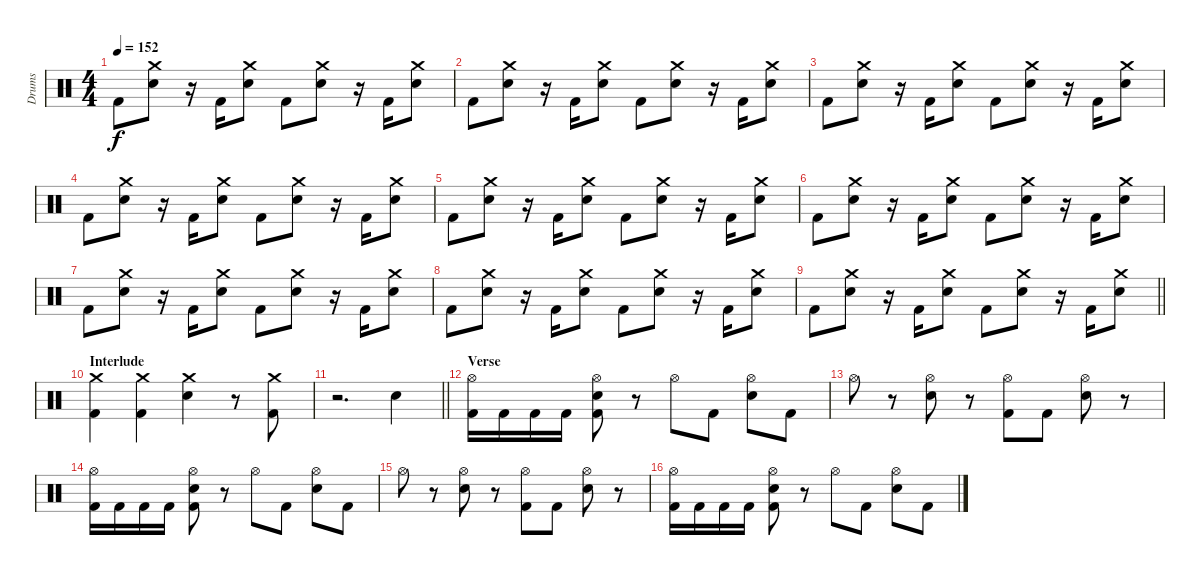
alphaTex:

\track ("Drums" "Drums") {instrument percussion}
\staff
\articulation defaults
\ts (4 4)
\tempo 152
\clef neutral
\ks c "Kick (hit) 2".8{dy f}
("Crash medium (hit)" "Electric Snare (hit)").8 r.16 "Kick (hit) 2".16 ("Crash medium (hit)" "Electric Snare (hit)").8 "Kick (hit) 2".8 ("Crash medium (hit)" "Electric Snare (hit)").8 r.16 "Kick (hit) 2".16 ("Crash medium (hit)" "Electric Snare (hit)").8 |
"Kick (hit) 2".8 ("Crash medium (hit)" "Electric Snare (hit)").8 r.16 "Kick (hit) 2".16 ("Crash medium (hit)" "Electric Snare (hit)").8 "Kick (hit) 2".8 ("Crash medium (hit)" "Electric Snare (hit)").8 r.16 "Kick (hit) 2".16 ("Crash medium (hit)" "Electric Snare (hit)").8 |
"Kick (hit) 2".8 ("Crash medium (hit)" "Electric Snare (hit)").8 r.16 "Kick (hit) 2".16 ("Crash medium (hit)" "Electric Snare (hit)").8 "Kick (hit) 2".8 ("Crash medium (hit)" "Electric Snare (hit)").8 r.16 "Kick (hit) 2".16 ("Crash medium (hit)" "Electric Snare (hit)").8 |
"Kick (hit) 2".8 ("Crash medium (hit)" "Electric Snare (hit)").8 r.16 "Kick (hit) 2".16 ("Crash medium (hit)" "Electric Snare (hit)").8 "Kick (hit) 2".8 ("Crash medium (hit)" "Electric Snare (hit)").8 r.16 "Kick (hit) 2".16 ("Crash medium (hit)" "Electric Snare (hit)").8 |
"Kick (hit) 2".8 ("Crash medium (hit)" "Electric Snare (hit)").8 r.16 "Kick (hit) 2".16 ("Crash medium (hit)" "Electric Snare (hit)").8 "Kick (hit) 2".8 ("Crash medium (hit)" "Electric Snare (hit)").8 r.16 "Kick (hit) 2".16 ("Crash medium (hit)" "Electric Snare (hit)").8 |
"Kick (hit) 2".8 ("Crash medium (hit)" "Electric Snare (hit)").8 r.16 "Kick (hit) 2".16 ("Crash medium (hit)" "Electric Snare (hit)").8 "Kick (hit) 2".8 ("Crash medium (hit)" "Electric Snare (hit)").8 r.16 "Kick (hit) 2".16 ("Crash medium (hit)" "Electric Snare (hit)").8 |
"Kick (hit) 2".8 ("Crash medium (hit)" "Electric Snare (hit)").8 r.16 "Kick (hit) 2".16 ("Crash medium (hit)" "Electric Snare (hit)").8 "Kick (hit) 2".8 ("Crash medium (hit)" "Electric Snare (hit)").8 r.16 "Kick (hit) 2".16 ("Crash medium (hit)" "Electric Snare (hit)").8 |
"Kick (hit) 2".8 ("Crash medium (hit)" "Electric Snare (hit)").8 r.16 "Kick (hit) 2".16 ("Crash medium (hit)" "Electric Snare (hit)").8 "Kick (hit) 2".8 ("Crash medium (hit)" "Electric Snare (hit)").8 r.16 "Kick (hit) 2".16 ("Crash medium (hit)" "Electric Snare (hit)").8 |
\barLineRight lightlight "Kick (hit) 2".8
("Crash medium (hit)" "Electric Snare (hit)").8 r.16 "Kick (hit) 2".16 ("Crash medium (hit)" "Electric Snare (hit)").8 "Kick (hit) 2".8 ("Crash medium (hit)" "Electric Snare (hit)").8 r.16 "Kick (hit) 2".16 ("Crash medium (hit)" "Electric Snare (hit)").8 |
\section ("" "Interlude")
("Crash medium (hit)" "Kick (hit) 2").4 ("Crash medium (hit)" "Kick (hit) 2").4 ("Crash medium (hit)" "Electric Snare (hit)").4 r.8 ("Crash medium (hit)" "Kick (hit) 2").8 |
\barLineRight lightlight
r.2{d} "Electric Snare (hit)".4 |
\section ("" "Verse")
("Hi-Hat (open)" "Kick (hit) 2").16 "Kick (hit) 2".16 "Kick (hit) 2".16 "Kick (hit) 2".16 ("Hi-Hat (open)" "Electric Snare (hit)" "Kick (hit) 2").8 r.8 "Hi-Hat (open)".8 "Kick (hit) 2".8 ("Hi-Hat (open)" "Electric Snare (hit)").8 "Kick (hit) 2".8 |
"Hi-Hat (open)".8 r.8 ("Hi-Hat (open)" "Electric Snare (hit)").8 r.8 ("Hi-Hat (open)" "Kick (hit) 2").8 "Kick (hit) 2".8 ("Hi-Hat (open)" "Electric Snare (hit)").8 r.8 |
("Hi-Hat (open)" "Kick (hit) 2").16 "Kick (hit) 2".16 "Kick (hit) 2".16 "Kick (hit) 2".16 ("Hi-Hat (open)" "Electric Snare (hit)" "Kick (hit) 2").8 r.8 "Hi-Hat (open)".8 "Kick (hit) 2".8 ("Hi-Hat (open)" "Electric Snare (hit)").8 "Kick (hit) 2".8 |
"Hi-Hat (open)".8 r.8 ("Hi-Hat (open)" "Electric Snare (hit)").8 r.8 ("Hi-Hat (open)" "Kick (hit) 2").8 "Kick (hit) 2".8 ("Hi-Hat (open)" "Electric Snare (hit)").8 r.8 |
("Hi-Hat (open)" "Kick (hit) 2").16 "Kick (hit) 2".16 "Kick (hit) 2".16 "Kick (hit) 2".16 ("Hi-Hat (open)" "Electric Snare (hit)" "Kick (hit) 2").8 r.8 "Hi-Hat (open)".8 "Kick (hit) 2".8 ("Hi-Hat (open)" "Electric Snare (hit)").8 "Kick (hit) 2".8
